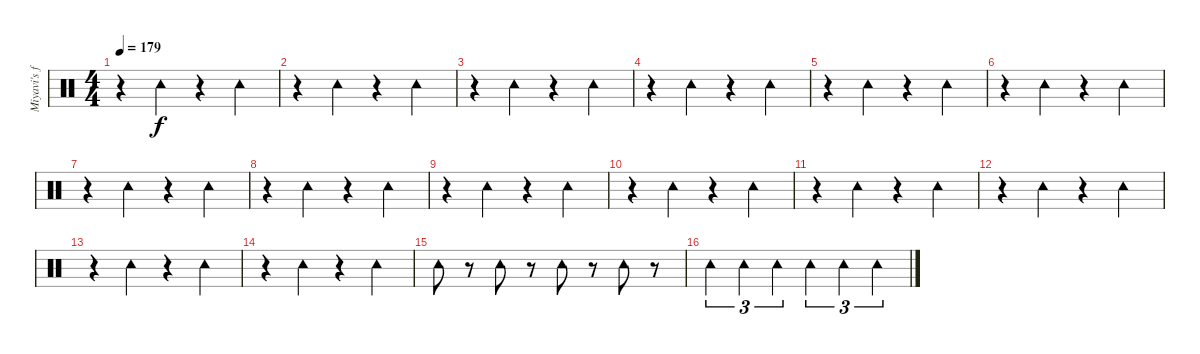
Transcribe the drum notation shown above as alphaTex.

\track ("Miyavi's foot" "Miyavi's f") {instrument percussion}
\staff {score}
\articulation defaults
\ts (4 4)
\tempo 179
\clef neutral
\ks c
r.4{dy f} "Tambourine (hit)".4 r.4 "Tambourine (hit)".4 |
r.4 "Tambourine (hit)".4 r.4 "Tambourine (hit)".4 |
r.4 "Tambourine (hit)".4 r.4 "Tambourine (hit)".4 |
r.4 "Tambourine (hit)".4 r.4 "Tambourine (hit)".4 |
r.4 "Tambourine (hit)".4 r.4 "Tambourine (hit)".4 |
r.4 "Tambourine (hit)".4 r.4 "Tambourine (hit)".4 |
r.4 "Tambourine (hit)".4 r.4 "Tambourine (hit)".4 |
r.4 "Tambourine (hit)".4 r.4 "Tambourine (hit)".4 |
r.4 "Tambourine (hit)".4 r.4 "Tambourine (hit)".4 |
r.4 "Tambourine (hit)".4 r.4 "Tambourine (hit)".4 |
r.4 "Tambourine (hit)".4 r.4 "Tambourine (hit)".4 |
r.4 "Tambourine (hit)".4 r.4 "Tambourine (hit)".4 |
r.4 "Tambourine (hit)".4 r.4 "Tambourine (hit)".4 |
r.4 "Tambourine (hit)".4 r.4 "Tambourine (hit)".4 |
"Tambourine (hit)".8 r.8 "Tambourine (hit)".8 r.8 "Tambourine (hit)".8 r.8 "Tambourine (hit)".8 r.8 |
"Tambourine (hit)".4{tu (3 2)} "Tambourine (hit)".4{tu (3 2)} "Tambourine (hit)".4{tu (3 2)} "Tambourine (hit)".4{tu (3 2)} "Tambourine (hit)".4{tu (3 2)} "Tambourine (hit)".4{tu (3 2)}
